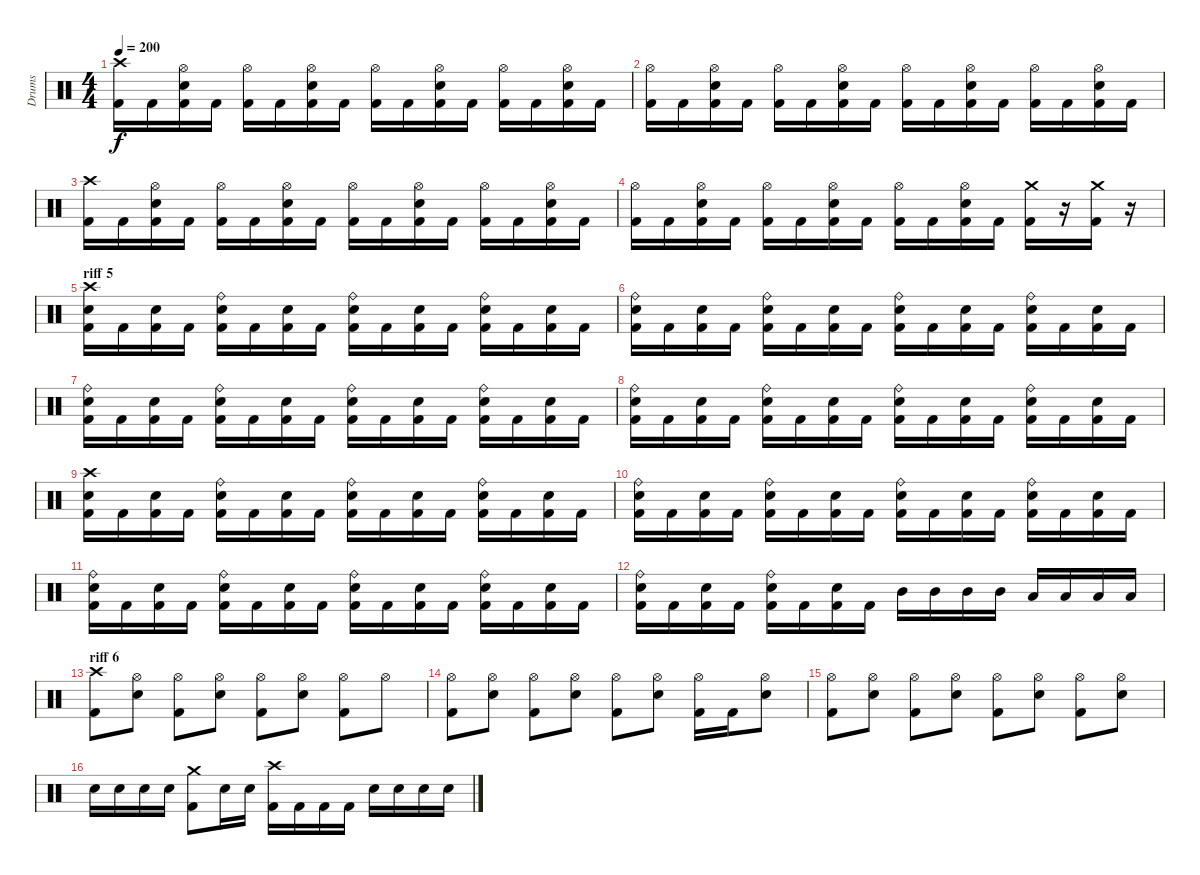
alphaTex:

\track ("Drums" "Drums") {instrument percussion}
\staff {score}
\articulation defaults
\ts (4 4)
\tempo 200
\clef neutral
\ks c
("Crash high (hit)" "Kick (hit) 2").16{dy f} "Kick (hit) 2".16 ("Hi-Hat (open)" "Electric Snare (hit)" "Kick (hit) 2").16 "Kick (hit) 2".16 ("Hi-Hat (open)" "Kick (hit) 2").16 "Kick (hit) 2".16 ("Hi-Hat (open)" "Electric Snare (hit)" "Kick (hit) 2").16 "Kick (hit) 2".16 ("Hi-Hat (open)" "Kick (hit) 2").16 "Kick (hit) 2".16 ("Hi-Hat (open)" "Electric Snare (hit)" "Kick (hit) 2").16 "Kick (hit) 2".16 ("Hi-Hat (open)" "Kick (hit) 2").16 "Kick (hit) 2".16 ("Hi-Hat (open)" "Electric Snare (hit)" "Kick (hit) 2").16 "Kick (hit) 2".16 |
("Hi-Hat (open)" "Kick (hit) 2").16 "Kick (hit) 2".16 ("Hi-Hat (open)" "Electric Snare (hit)" "Kick (hit) 2").16 "Kick (hit) 2".16 ("Hi-Hat (open)" "Kick (hit) 2").16 "Kick (hit) 2".16 ("Hi-Hat (open)" "Electric Snare (hit)" "Kick (hit) 2").16 "Kick (hit) 2".16 ("Hi-Hat (open)" "Kick (hit) 2").16 "Kick (hit) 2".16 ("Hi-Hat (open)" "Electric Snare (hit)" "Kick (hit) 2").16 "Kick (hit) 2".16 ("Hi-Hat (open)" "Kick (hit) 2").16 "Kick (hit) 2".16 ("Hi-Hat (open)" "Electric Snare (hit)" "Kick (hit) 2").16 "Kick (hit) 2".16 |
("Crash high (hit)" "Kick (hit) 2").16 "Kick (hit) 2".16 ("Hi-Hat (open)" "Electric Snare (hit)" "Kick (hit) 2").16 "Kick (hit) 2".16 ("Hi-Hat (open)" "Kick (hit) 2").16 "Kick (hit) 2".16 ("Hi-Hat (open)" "Electric Snare (hit)" "Kick (hit) 2").16 "Kick (hit) 2".16 ("Hi-Hat (open)" "Kick (hit) 2").16 "Kick (hit) 2".16 ("Hi-Hat (open)" "Electric Snare (hit)" "Kick (hit) 2").16 "Kick (hit) 2".16 ("Hi-Hat (open)" "Kick (hit) 2").16 "Kick (hit) 2".16 ("Hi-Hat (open)" "Electric Snare (hit)" "Kick (hit) 2").16 "Kick (hit) 2".16 |
("Hi-Hat (open)" "Kick (hit) 2").16 "Kick (hit) 2".16 ("Hi-Hat (open)" "Electric Snare (hit)" "Kick (hit) 2").16 "Kick (hit) 2".16 ("Hi-Hat (open)" "Kick (hit) 2").16 "Kick (hit) 2".16 ("Hi-Hat (open)" "Electric Snare (hit)" "Kick (hit) 2").16 "Kick (hit) 2".16 ("Hi-Hat (open)" "Kick (hit) 2").16 "Kick (hit) 2".16 ("Hi-Hat (open)" "Electric Snare (hit)" "Kick (hit) 2").16 "Kick (hit) 2".16 ("Crash medium (hit)" "Kick (hit) 2").16 r.16 ("Crash medium (hit)" "Kick (hit) 2").16 r.16 |
\section ("" "riff 5")
("Crash high (hit)" "Electric Snare (hit)" "Kick (hit) 2").16 "Kick (hit) 2".16 ("Electric Snare (hit)" "Kick (hit) 2").16 "Kick (hit) 2".16 ("Ride (bell)" "Electric Snare (hit)" "Kick (hit) 2").16 "Kick (hit) 2".16 ("Electric Snare (hit)" "Kick (hit) 2").16 "Kick (hit) 2".16 ("Ride (bell)" "Electric Snare (hit)" "Kick (hit) 2").16 "Kick (hit) 2".16 ("Electric Snare (hit)" "Kick (hit) 2").16 "Kick (hit) 2".16 ("Ride (bell)" "Electric Snare (hit)" "Kick (hit) 2").16 "Kick (hit) 2".16 ("Electric Snare (hit)" "Kick (hit) 2").16 "Kick (hit) 2".16 |
("Ride (bell)" "Electric Snare (hit)" "Kick (hit) 2").16 "Kick (hit) 2".16 ("Electric Snare (hit)" "Kick (hit) 2").16 "Kick (hit) 2".16 ("Ride (bell)" "Electric Snare (hit)" "Kick (hit) 2").16 "Kick (hit) 2".16 ("Electric Snare (hit)" "Kick (hit) 2").16 "Kick (hit) 2".16 ("Ride (bell)" "Electric Snare (hit)" "Kick (hit) 2").16 "Kick (hit) 2".16 ("Electric Snare (hit)" "Kick (hit) 2").16 "Kick (hit) 2".16 ("Ride (bell)" "Electric Snare (hit)" "Kick (hit) 2").16 "Kick (hit) 2".16 ("Electric Snare (hit)" "Kick (hit) 2").16 "Kick (hit) 2".16 |
("Ride (bell)" "Electric Snare (hit)" "Kick (hit) 2").16 "Kick (hit) 2".16 ("Electric Snare (hit)" "Kick (hit) 2").16 "Kick (hit) 2".16 ("Ride (bell)" "Electric Snare (hit)" "Kick (hit) 2").16 "Kick (hit) 2".16 ("Electric Snare (hit)" "Kick (hit) 2").16 "Kick (hit) 2".16 ("Ride (bell)" "Electric Snare (hit)" "Kick (hit) 2").16 "Kick (hit) 2".16 ("Electric Snare (hit)" "Kick (hit) 2").16 "Kick (hit) 2".16 ("Ride (bell)" "Electric Snare (hit)" "Kick (hit) 2").16 "Kick (hit) 2".16 ("Electric Snare (hit)" "Kick (hit) 2").16 "Kick (hit) 2".16 |
("Ride (bell)" "Electric Snare (hit)" "Kick (hit) 2").16 "Kick (hit) 2".16 ("Electric Snare (hit)" "Kick (hit) 2").16 "Kick (hit) 2".16 ("Ride (bell)" "Electric Snare (hit)" "Kick (hit) 2").16 "Kick (hit) 2".16 ("Electric Snare (hit)" "Kick (hit) 2").16 "Kick (hit) 2".16 ("Ride (bell)" "Electric Snare (hit)" "Kick (hit) 2").16 "Kick (hit) 2".16 ("Electric Snare (hit)" "Kick (hit) 2").16 "Kick (hit) 2".16 ("Ride (bell)" "Electric Snare (hit)" "Kick (hit) 2").16 "Kick (hit) 2".16 ("Electric Snare (hit)" "Kick (hit) 2").16 "Kick (hit) 2".16 |
("Crash high (hit)" "Electric Snare (hit)" "Kick (hit) 2").16 "Kick (hit) 2".16 ("Electric Snare (hit)" "Kick (hit) 2").16 "Kick (hit) 2".16 ("Ride (bell)" "Electric Snare (hit)" "Kick (hit) 2").16 "Kick (hit) 2".16 ("Electric Snare (hit)" "Kick (hit) 2").16 "Kick (hit) 2".16 ("Ride (bell)" "Electric Snare (hit)" "Kick (hit) 2").16 "Kick (hit) 2".16 ("Electric Snare (hit)" "Kick (hit) 2").16 "Kick (hit) 2".16 ("Ride (bell)" "Electric Snare (hit)" "Kick (hit) 2").16 "Kick (hit) 2".16 ("Electric Snare (hit)" "Kick (hit) 2").16 "Kick (hit) 2".16 |
("Ride (bell)" "Electric Snare (hit)" "Kick (hit) 2").16 "Kick (hit) 2".16 ("Electric Snare (hit)" "Kick (hit) 2").16 "Kick (hit) 2".16 ("Ride (bell)" "Electric Snare (hit)" "Kick (hit) 2").16 "Kick (hit) 2".16 ("Electric Snare (hit)" "Kick (hit) 2").16 "Kick (hit) 2".16 ("Ride (bell)" "Electric Snare (hit)" "Kick (hit) 2").16 "Kick (hit) 2".16 ("Electric Snare (hit)" "Kick (hit) 2").16 "Kick (hit) 2".16 ("Ride (bell)" "Electric Snare (hit)" "Kick (hit) 2").16 "Kick (hit) 2".16 ("Electric Snare (hit)" "Kick (hit) 2").16 "Kick (hit) 2".16 |
("Ride (bell)" "Electric Snare (hit)" "Kick (hit) 2").16 "Kick (hit) 2".16 ("Electric Snare (hit)" "Kick (hit) 2").16 "Kick (hit) 2".16 ("Ride (bell)" "Electric Snare (hit)" "Kick (hit) 2").16 "Kick (hit) 2".16 ("Electric Snare (hit)" "Kick (hit) 2").16 "Kick (hit) 2".16 ("Ride (bell)" "Electric Snare (hit)" "Kick (hit) 2").16 "Kick (hit) 2".16 ("Electric Snare (hit)" "Kick (hit) 2").16 "Kick (hit) 2".16 ("Ride (bell)" "Electric Snare (hit)" "Kick (hit) 2").16 "Kick (hit) 2".16 ("Electric Snare (hit)" "Kick (hit) 2").16 "Kick (hit) 2".16 |
("Ride (bell)" "Electric Snare (hit)" "Kick (hit) 2").16 "Kick (hit) 2".16 ("Electric Snare (hit)" "Kick (hit) 2").16 "Kick (hit) 2".16 ("Ride (bell)" "Electric Snare (hit)" "Kick (hit) 2").16 "Kick (hit) 2".16 ("Electric Snare (hit)" "Kick (hit) 2").16 "Kick (hit) 2".16 "Mid Tom (hit)".16 "Mid Tom (hit)".16 "Mid Tom (hit)".16 "Mid Tom (hit)".16 "Low Tom (hit)".16 "Low Tom (hit)".16 "Low Tom (hit)".16 "Low Tom (hit)".16 |
\section ("" "riff 6")
("Crash high (hit)" "Kick (hit) 2").8 ("Hi-Hat (open)" "Electric Snare (hit)").8 ("Hi-Hat (open)" "Kick (hit) 2").8 ("Hi-Hat (open)" "Electric Snare (hit)").8 ("Hi-Hat (open)" "Kick (hit) 2").8 ("Hi-Hat (open)" "Electric Snare (hit)").8 ("Hi-Hat (open)" "Kick (hit) 2").8 "Hi-Hat (open)".8 |
("Hi-Hat (open)" "Kick (hit) 2").8 ("Hi-Hat (open)" "Electric Snare (hit)").8 ("Hi-Hat (open)" "Kick (hit) 2").8 ("Hi-Hat (open)" "Electric Snare (hit)").8 ("Hi-Hat (open)" "Kick (hit) 2").8 ("Hi-Hat (open)" "Electric Snare (hit)").8 ("Hi-Hat (open)" "Kick (hit) 2").16 "Kick (hit) 2".16 ("Hi-Hat (open)" "Electric Snare (hit)").8 |
("Hi-Hat (open)" "Kick (hit) 2").8 ("Hi-Hat (open)" "Electric Snare (hit)").8 ("Hi-Hat (open)" "Kick (hit) 2").8 ("Hi-Hat (open)" "Electric Snare (hit)").8 ("Hi-Hat (open)" "Kick (hit) 2").8 ("Hi-Hat (open)" "Electric Snare (hit)").8 ("Hi-Hat (open)" "Kick (hit) 2").8 ("Hi-Hat (open)" "Electric Snare (hit)").8 |
"Electric Snare (hit)".16 "Electric Snare (hit)".16 "Electric Snare (hit)".16 "Electric Snare (hit)".16 ("Crash medium (hit)" "Kick (hit) 2").8 "Electric Snare (hit)".16 "Electric Snare (hit)".16 ("Crash high (hit)" "Kick (hit) 2").16 "Kick (hit) 2".16 "Kick (hit) 2".16 "Kick (hit) 2".16 "Electric Snare (hit)".16 "Electric Snare (hit)".16 "Electric Snare (hit)".16 "Electric Snare (hit)".16
